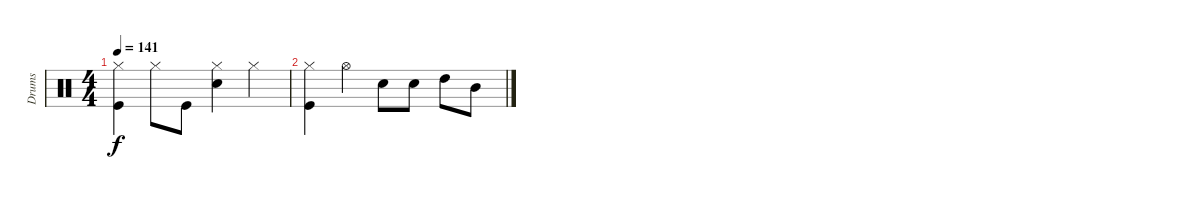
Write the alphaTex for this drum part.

\track ("Drums" "Drums") {instrument percussion}
\staff {score}
\articulation defaults
\ts (4 4)
\tempo 141
\clef neutral
\ks c
("Hi-Hat (closed)" "Kick (hit)").4{dy f} "Hi-Hat (closed)".8 "Kick (hit)".8 ("Hi-Hat (closed)" "Snare (hit) 2").4 "Hi-Hat (closed)".4 |
("Hi-Hat (closed)" "Kick (hit)").4 "Hi-Hat (open)".4 "Snare (hit) 2".8 "Snare (hit) 2".8 "High Tom (hit)".8 "Mid Tom (hit)".8
